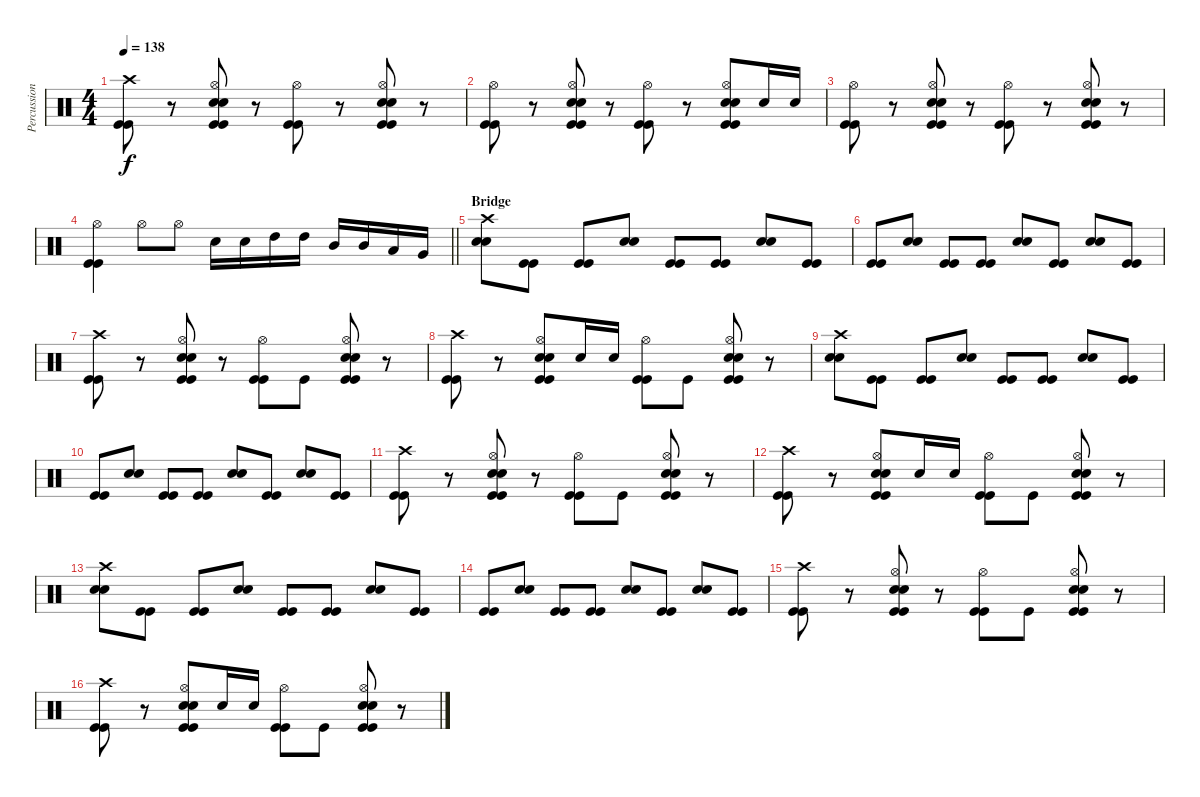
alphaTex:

\track ("Percussioni" "Percussion") {instrument percussion}
\staff {score}
\articulation defaults
\ts (4 4)
\tempo 138
\clef neutral
\ks c
("Crash high (hit)" "Kick (hit)" "Kick (hit)").8{dy f} r.8 ("Hi-Hat (open)" "Snare (hit) 2" "Snare (hit) 2" "Kick (hit)" "Kick (hit)").8 r.8 ("Hi-Hat (open)" "Kick (hit)" "Kick (hit)").8 r.8 ("Hi-Hat (open)" "Snare (hit) 2" "Snare (hit) 2" "Kick (hit)" "Kick (hit)").8 r.8 |
("Hi-Hat (open)" "Kick (hit)" "Kick (hit)").8 r.8 ("Hi-Hat (open)" "Snare (hit) 2" "Snare (hit) 2" "Kick (hit)" "Kick (hit)").8 r.8 ("Hi-Hat (open)" "Kick (hit)" "Kick (hit)").8 r.8 ("Hi-Hat (open)" "Snare (hit) 2" "Snare (hit) 2" "Kick (hit)" "Kick (hit)").8 "Snare (hit) 2".16 "Snare (hit) 2".16 |
("Hi-Hat (open)" "Kick (hit)" "Kick (hit)").8 r.8 ("Hi-Hat (open)" "Snare (hit) 2" "Snare (hit) 2" "Kick (hit)" "Kick (hit)").8 r.8 ("Hi-Hat (open)" "Kick (hit)" "Kick (hit)").8 r.8 ("Hi-Hat (open)" "Snare (hit) 2" "Snare (hit) 2" "Kick (hit)" "Kick (hit)").8 r.8 |
\barLineRight lightlight
("Hi-Hat (open)" "Kick (hit)" "Kick (hit)").4 "Hi-Hat (open)".8 "Hi-Hat (open)".8 "Snare (hit) 2".16 "Snare (hit) 2".16 "High Tom (hit)".16 "High Tom (hit)".16 "Mid Tom (hit)".16 "Mid Tom (hit)".16 "Low Tom (hit)".16 "Very Low Tom (hit)".16 |
\section ("" "Bridge")
("Crash high (hit)" "Snare (hit) 2" "Snare (hit) 2").8 ("Kick (hit)" "Kick (hit)").8 ("Kick (hit)" "Kick (hit)").8 ("Snare (hit) 2" "Snare (hit) 2").8 ("Kick (hit)" "Kick (hit)").8 ("Kick (hit)" "Kick (hit)").8 ("Snare (hit) 2" "Snare (hit) 2").8 ("Kick (hit)" "Kick (hit)").8 |
("Kick (hit)" "Kick (hit)").8 ("Snare (hit) 2" "Snare (hit) 2").8 ("Kick (hit)" "Kick (hit)").8 ("Kick (hit)" "Kick (hit)").8 ("Snare (hit) 2" "Snare (hit) 2").8 ("Kick (hit)" "Kick (hit)").8 ("Snare (hit) 2" "Snare (hit) 2").8 ("Kick (hit)" "Kick (hit)").8 |
("Crash high (hit)" "Kick (hit)" "Kick (hit)").8 r.8 ("Hi-Hat (open)" "Snare (hit) 2" "Snare (hit) 2" "Kick (hit)" "Kick (hit)").8 r.8 ("Hi-Hat (open)" "Kick (hit)" "Kick (hit)").8 "Kick (hit)".8 ("Hi-Hat (open)" "Snare (hit) 2" "Snare (hit) 2" "Kick (hit)" "Kick (hit)").8 r.8 |
("Crash high (hit)" "Kick (hit)" "Kick (hit)").8 r.8 ("Hi-Hat (open)" "Snare (hit) 2" "Snare (hit) 2" "Kick (hit)" "Kick (hit)").8 "Snare (hit) 2".16 "Snare (hit) 2".16 ("Hi-Hat (open)" "Kick (hit)" "Kick (hit)").8 "Kick (hit)".8 ("Hi-Hat (open)" "Snare (hit) 2" "Snare (hit) 2" "Kick (hit)" "Kick (hit)").8 r.8 |
("Crash high (hit)" "Snare (hit) 2" "Snare (hit) 2").8 ("Kick (hit)" "Kick (hit)").8 ("Kick (hit)" "Kick (hit)").8 ("Snare (hit) 2" "Snare (hit) 2").8 ("Kick (hit)" "Kick (hit)").8 ("Kick (hit)" "Kick (hit)").8 ("Snare (hit) 2" "Snare (hit) 2").8 ("Kick (hit)" "Kick (hit)").8 |
("Kick (hit)" "Kick (hit)").8 ("Snare (hit) 2" "Snare (hit) 2").8 ("Kick (hit)" "Kick (hit)").8 ("Kick (hit)" "Kick (hit)").8 ("Snare (hit) 2" "Snare (hit) 2").8 ("Kick (hit)" "Kick (hit)").8 ("Snare (hit) 2" "Snare (hit) 2").8 ("Kick (hit)" "Kick (hit)").8 |
("Crash high (hit)" "Kick (hit)" "Kick (hit)").8 r.8 ("Hi-Hat (open)" "Snare (hit) 2" "Snare (hit) 2" "Kick (hit)" "Kick (hit)").8 r.8 ("Hi-Hat (open)" "Kick (hit)" "Kick (hit)").8 "Kick (hit)".8 ("Hi-Hat (open)" "Snare (hit) 2" "Snare (hit) 2" "Kick (hit)" "Kick (hit)").8 r.8 |
("Crash high (hit)" "Kick (hit)" "Kick (hit)").8 r.8 ("Hi-Hat (open)" "Snare (hit) 2" "Snare (hit) 2" "Kick (hit)" "Kick (hit)").8 "Snare (hit) 2".16 "Snare (hit) 2".16 ("Hi-Hat (open)" "Kick (hit)" "Kick (hit)").8 "Kick (hit)".8 ("Hi-Hat (open)" "Snare (hit) 2" "Snare (hit) 2" "Kick (hit)" "Kick (hit)").8 r.8 |
("Crash high (hit)" "Snare (hit) 2" "Snare (hit) 2").8 ("Kick (hit)" "Kick (hit)").8 ("Kick (hit)" "Kick (hit)").8 ("Snare (hit) 2" "Snare (hit) 2").8 ("Kick (hit)" "Kick (hit)").8 ("Kick (hit)" "Kick (hit)").8 ("Snare (hit) 2" "Snare (hit) 2").8 ("Kick (hit)" "Kick (hit)").8 |
("Kick (hit)" "Kick (hit)").8 ("Snare (hit) 2" "Snare (hit) 2").8 ("Kick (hit)" "Kick (hit)").8 ("Kick (hit)" "Kick (hit)").8 ("Snare (hit) 2" "Snare (hit) 2").8 ("Kick (hit)" "Kick (hit)").8 ("Snare (hit) 2" "Snare (hit) 2").8 ("Kick (hit)" "Kick (hit)").8 |
("Crash high (hit)" "Kick (hit)" "Kick (hit)").8 r.8 ("Hi-Hat (open)" "Snare (hit) 2" "Snare (hit) 2" "Kick (hit)" "Kick (hit)").8 r.8 ("Hi-Hat (open)" "Kick (hit)" "Kick (hit)").8 "Kick (hit)".8 ("Hi-Hat (open)" "Snare (hit) 2" "Snare (hit) 2" "Kick (hit)" "Kick (hit)").8 r.8 |
("Crash high (hit)" "Kick (hit)" "Kick (hit)").8 r.8 ("Hi-Hat (open)" "Snare (hit) 2" "Snare (hit) 2" "Kick (hit)" "Kick (hit)").8 "Snare (hit) 2".16 "Snare (hit) 2".16 ("Hi-Hat (open)" "Kick (hit)" "Kick (hit)").8 "Kick (hit)".8 ("Hi-Hat (open)" "Snare (hit) 2" "Snare (hit) 2" "Kick (hit)" "Kick (hit)").8 r.8
